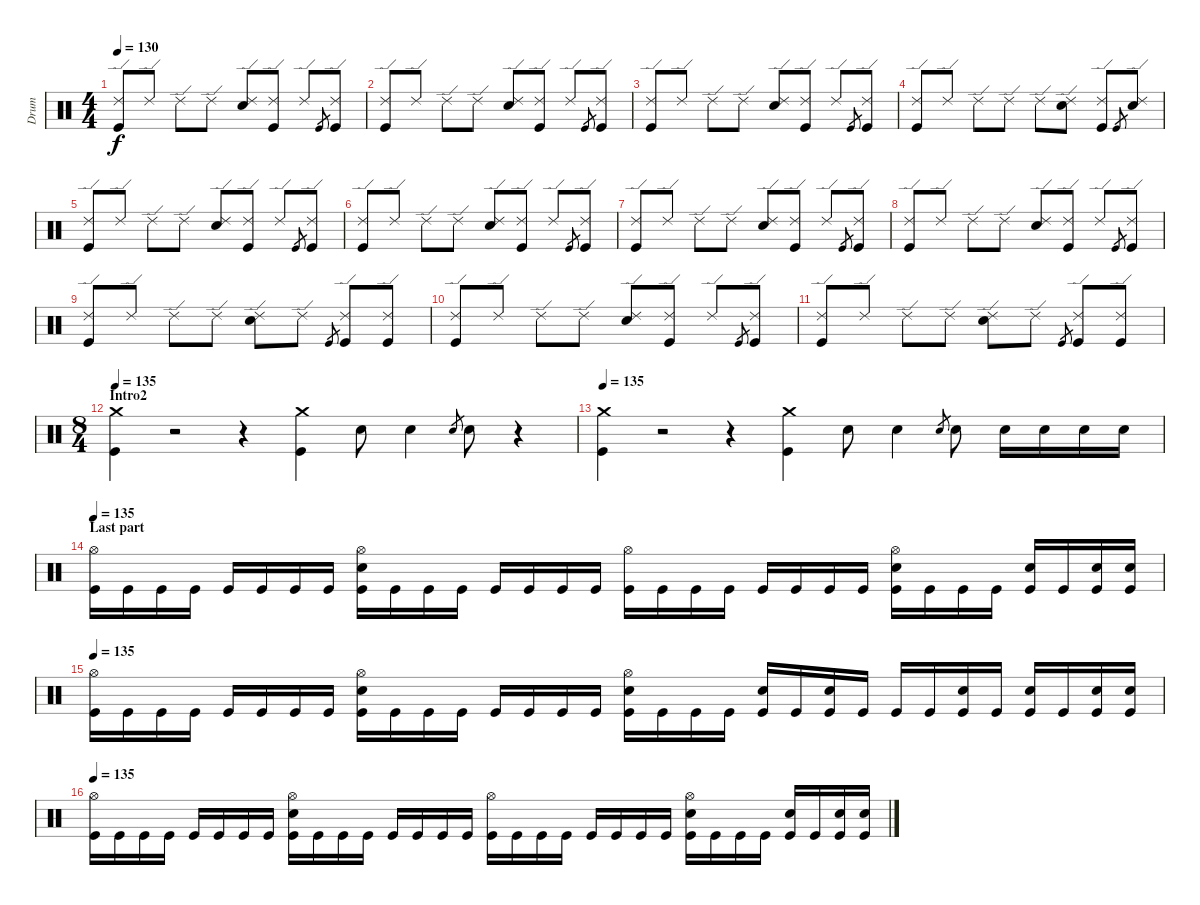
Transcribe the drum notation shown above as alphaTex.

\track ("Drum" "Drum") {instrument percussion}
\staff {score}
\articulation defaults
\ts (4 4)
\tempo 130
\clef neutral
\ks c
("Ride (edge) 2" "Kick (hit)").8{dy f} "Ride (edge) 2".8 "Ride (edge) 2".8 "Ride (edge) 2".8 ("Ride (edge) 2" "Snare (hit) 2").8 ("Ride (edge) 2" "Kick (hit)").8 "Ride (edge) 2".8 "Kick (hit)".8{gr} ("Ride (edge) 2" "Kick (hit)").8 |
("Ride (edge) 2" "Kick (hit)").8 "Ride (edge) 2".8 "Ride (edge) 2".8 "Ride (edge) 2".8 ("Ride (edge) 2" "Snare (hit) 2").8 ("Ride (edge) 2" "Kick (hit)").8 "Ride (edge) 2".8 "Kick (hit)".8{gr} ("Ride (edge) 2" "Kick (hit)").8 |
("Ride (edge) 2" "Kick (hit)").8 "Ride (edge) 2".8 "Ride (edge) 2".8 "Ride (edge) 2".8 ("Ride (edge) 2" "Snare (hit) 2").8 ("Ride (edge) 2" "Kick (hit)").8 "Ride (edge) 2".8 "Kick (hit)".8{gr} ("Ride (edge) 2" "Kick (hit)").8 |
("Ride (edge) 2" "Kick (hit)").8 "Ride (edge) 2".8 "Ride (edge) 2".8 "Ride (edge) 2".8 "Ride (edge) 2".8 ("Ride (edge) 2" "Electric Snare (hit)").8 ("Ride (edge) 2" "Kick (hit)").8 "Kick (hit)".8{gr} ("Ride (edge) 2" "Electric Snare (hit)").8 |
("Ride (edge) 2" "Kick (hit)").8 "Ride (edge) 2".8 "Ride (edge) 2".8 "Ride (edge) 2".8 ("Ride (edge) 2" "Snare (hit) 2").8 ("Ride (edge) 2" "Kick (hit)").8 "Ride (edge) 2".8 "Kick (hit)".8{gr} ("Ride (edge) 2" "Kick (hit)").8 |
("Ride (edge) 2" "Kick (hit)").8 "Ride (edge) 2".8 "Ride (edge) 2".8 "Ride (edge) 2".8 ("Ride (edge) 2" "Snare (hit) 2").8 ("Ride (edge) 2" "Kick (hit)").8 "Ride (edge) 2".8 "Kick (hit)".8{gr} ("Ride (edge) 2" "Kick (hit)").8 |
("Ride (edge) 2" "Kick (hit)").8 "Ride (edge) 2".8 "Ride (edge) 2".8 "Ride (edge) 2".8 ("Ride (edge) 2" "Snare (hit) 2").8 ("Ride (edge) 2" "Kick (hit)").8 "Ride (edge) 2".8 "Kick (hit)".8{gr} ("Ride (edge) 2" "Kick (hit)").8 |
("Ride (edge) 2" "Kick (hit)").8 "Ride (edge) 2".8 "Ride (edge) 2".8 "Ride (edge) 2".8 ("Ride (edge) 2" "Snare (hit) 2").8 ("Ride (edge) 2" "Kick (hit)").8 "Ride (edge) 2".8 "Kick (hit)".8{gr} ("Ride (edge) 2" "Kick (hit)").8 |
("Ride (edge) 2" "Kick (hit)").8 "Ride (edge) 2".8 "Ride (edge) 2".8 "Ride (edge) 2".8 ("Ride (edge) 2" "Electric Snare (hit)").8 "Ride (edge) 2".8 "Kick (hit)".8{gr} ("Ride (edge) 2" "Kick (hit)").8 ("Ride (edge) 2" "Kick (hit)").8 |
("Ride (edge) 2" "Kick (hit)").8 "Ride (edge) 2".8 "Ride (edge) 2".8 "Ride (edge) 2".8 ("Ride (edge) 2" "Snare (hit) 2").8 ("Ride (edge) 2" "Kick (hit)").8 "Ride (edge) 2".8 "Kick (hit)".8{gr} ("Ride (edge) 2" "Kick (hit)").8 |
("Ride (edge) 2" "Kick (hit)").8 "Ride (edge) 2".8 "Ride (edge) 2".8 "Ride (edge) 2".8 ("Ride (edge) 2" "Electric Snare (hit)").8 "Ride (edge) 2".8 "Kick (hit)".8{gr} ("Ride (edge) 2" "Kick (hit)").8 ("Ride (edge) 2" "Kick (hit)").8 |
\ts (8 4)
\section ("" "Intro2")
\tempo 135
("Crash medium (hit)" "Kick (hit)").4 r.2 r.4 ("Crash medium (hit)" "Kick (hit)").4 "Electric Snare (hit)".8 "Electric Snare (hit)".4 "Electric Snare (hit)".8{gr} "Electric Snare (hit)".8 r.4 |
\tempo 135
("Crash medium (hit)" "Kick (hit)").4 r.2 r.4 ("Crash medium (hit)" "Kick (hit)").4 "Electric Snare (hit)".8 "Electric Snare (hit)".4 "Electric Snare (hit)".8{gr} "Electric Snare (hit)".8 "Electric Snare (hit)".16 "Electric Snare (hit)".16 "Electric Snare (hit)".16 "Electric Snare (hit)".16 |
\section ("" "Last part")
\tempo 135
("Hi-Hat (open)" "Kick (hit)").16 "Kick (hit)".16 "Kick (hit)".16 "Kick (hit)".16 "Kick (hit)".16 "Kick (hit)".16 "Kick (hit)".16 "Kick (hit)".16 ("Hi-Hat (open)" "Electric Snare (hit)" "Kick (hit)").16 "Kick (hit)".16 "Kick (hit)".16 "Kick (hit)".16 "Kick (hit)".16 "Kick (hit)".16 "Kick (hit)".16 "Kick (hit)".16 ("Hi-Hat (open)" "Kick (hit)").16 "Kick (hit)".16 "Kick (hit)".16 "Kick (hit)".16 "Kick (hit)".16 "Kick (hit)".16 "Kick (hit)".16 "Kick (hit)".16 ("Hi-Hat (open)" "Electric Snare (hit)" "Kick (hit)").16 "Kick (hit)".16 "Kick (hit)".16 "Kick (hit)".16 ("Electric Snare (hit)" "Kick (hit)").16 "Kick (hit)".16 ("Electric Snare (hit)" "Kick (hit)").16 ("Electric Snare (hit)" "Kick (hit)").16 |
\tempo 135
("Hi-Hat (open)" "Kick (hit)").16 "Kick (hit)".16 "Kick (hit)".16 "Kick (hit)".16 "Kick (hit)".16 "Kick (hit)".16 "Kick (hit)".16 "Kick (hit)".16 ("Hi-Hat (open)" "Electric Snare (hit)" "Kick (hit)").16 "Kick (hit)".16 "Kick (hit)".16 "Kick (hit)".16 "Kick (hit)".16 "Kick (hit)".16 "Kick (hit)".16 "Kick (hit)".16 ("Hi-Hat (open)" "Electric Snare (hit)" "Kick (hit)").16 "Kick (hit)".16 "Kick (hit)".16 "Kick (hit)".16 ("Electric Snare (hit)" "Kick (hit)").16 "Kick (hit)".16 ("Electric Snare (hit)" "Kick (hit)").16 "Kick (hit)".16 "Kick (hit)".16 "Kick (hit)".16 ("Electric Snare (hit)" "Kick (hit)").16 "Kick (hit)".16 ("Electric Snare (hit)" "Kick (hit)").16 "Kick (hit)".16 ("Electric Snare (hit)" "Kick (hit)").16 ("Electric Snare (hit)" "Kick (hit)").16 |
\tempo 135
("Hi-Hat (open)" "Kick (hit)").16 "Kick (hit)".16 "Kick (hit)".16 "Kick (hit)".16 "Kick (hit)".16 "Kick (hit)".16 "Kick (hit)".16 "Kick (hit)".16 ("Hi-Hat (open)" "Electric Snare (hit)" "Kick (hit)").16 "Kick (hit)".16 "Kick (hit)".16 "Kick (hit)".16 "Kick (hit)".16 "Kick (hit)".16 "Kick (hit)".16 "Kick (hit)".16 ("Hi-Hat (open)" "Kick (hit)").16 "Kick (hit)".16 "Kick (hit)".16 "Kick (hit)".16 "Kick (hit)".16 "Kick (hit)".16 "Kick (hit)".16 "Kick (hit)".16 ("Hi-Hat (open)" "Electric Snare (hit)" "Kick (hit)").16 "Kick (hit)".16 "Kick (hit)".16 "Kick (hit)".16 ("Electric Snare (hit)" "Kick (hit)").16 "Kick (hit)".16 ("Electric Snare (hit)" "Kick (hit)").16 ("Electric Snare (hit)" "Kick (hit)").16
